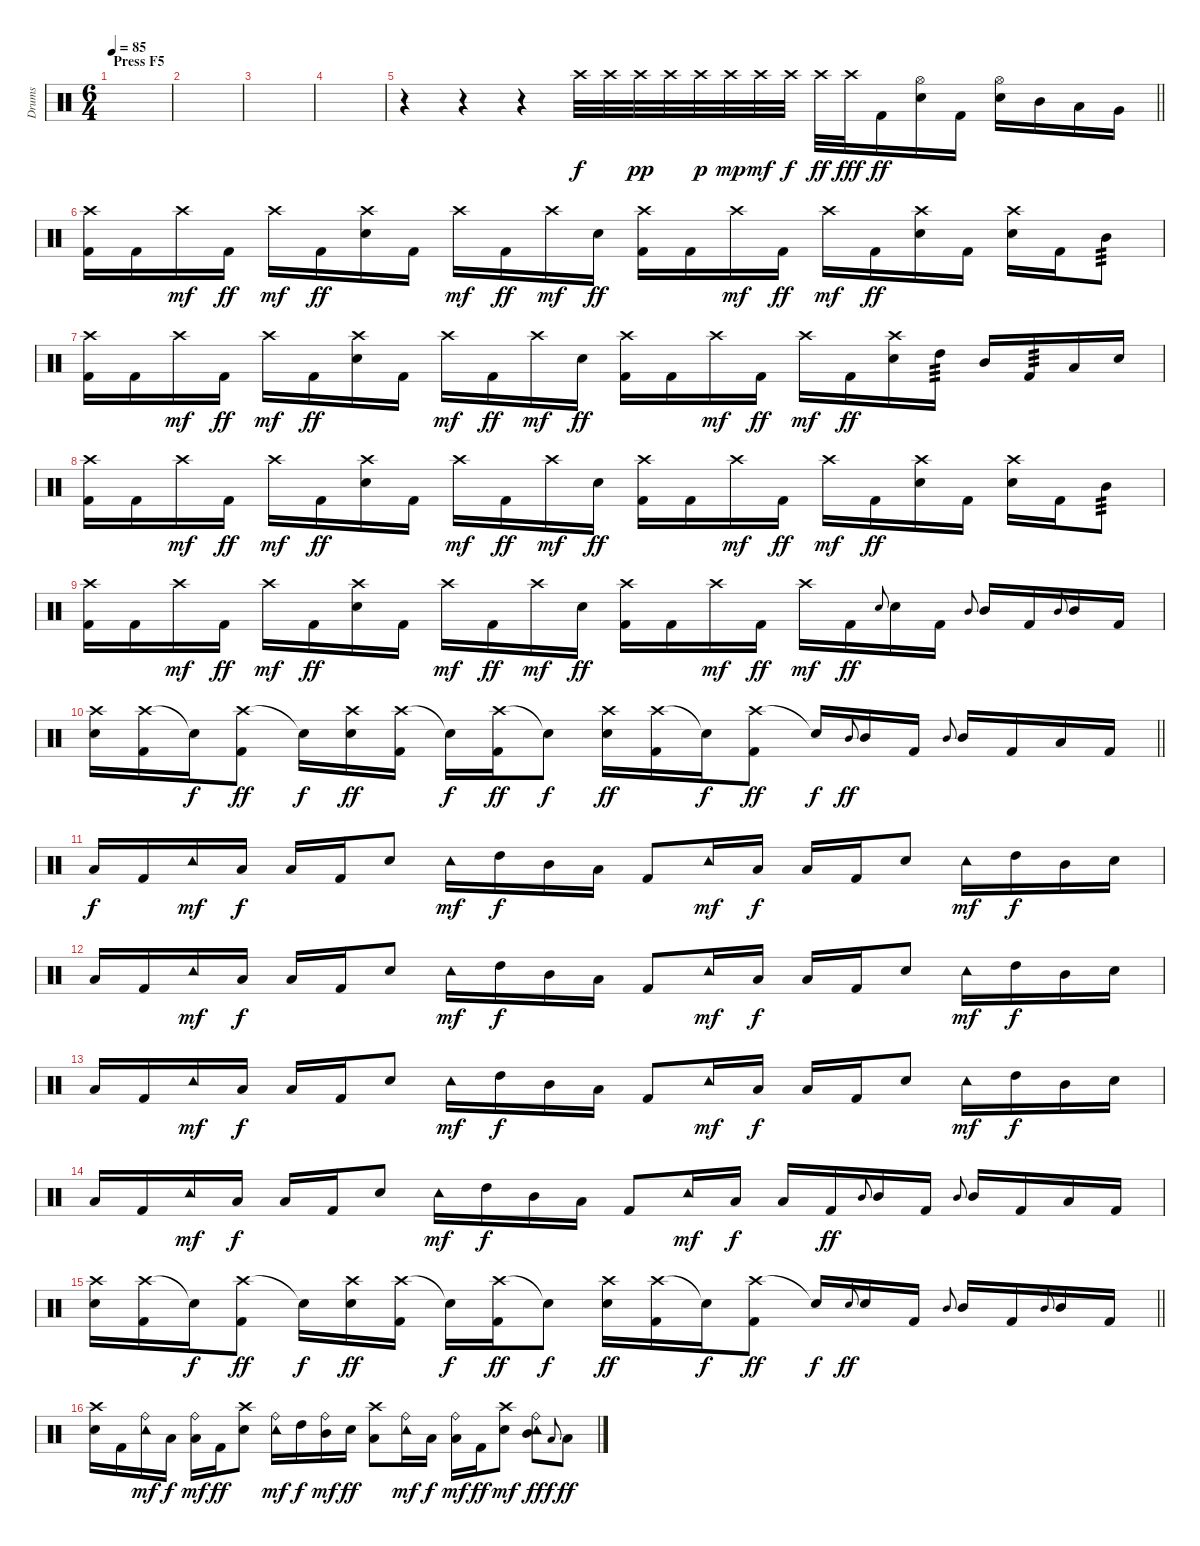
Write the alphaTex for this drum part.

\track ("Drums" "Drums") {instrument percussion}
\staff {score}
\articulation defaults
\ts (6 4)
\section ("" "Press F5")
\tempo 85
\clef neutral
\ks c
|
|
|
|
\barLineRight lightlight
r.4 r.4 r.4 "Crash high (hit)".32 "Crash high (hit)".32 "Crash high (hit)".32{dy pp} "Crash high (hit)".32 "Crash high (hit)".32{dy p} "Crash high (hit)".32{dy mp} "Crash high (hit)".32{dy mf} "Crash high (hit)".32{dy f} "Crash high (hit)".32{dy ff} "Crash high (hit)".32{dy fff} "Kick (hit) 2".16{dy ff} ("Hi-Hat (open)" "Snare (hit) 2").16 "Kick (hit) 2".16 ("Hi-Hat (open)" "Snare (hit) 2").16 "Mid Tom (hit)".16 "Low Tom (hit)".16 "Very Low Tom (hit)".16 |
\section ("" "")
("Crash high (hit)" "Kick (hit) 2").16 "Kick (hit) 2".16 "Crash high (hit)".16{dy mf} "Kick (hit) 2".16{dy ff} "Crash high (hit)".16{dy mf} "Kick (hit) 2".16{dy ff} ("Crash high (hit)" "Snare (hit) 2").16 "Kick (hit) 2".16 "Crash high (hit)".16{dy mf} "Kick (hit) 2".16{dy ff} "Crash high (hit)".16{dy mf} "Snare (hit) 2".16{dy ff} ("Crash high (hit)" "Kick (hit) 2").16 "Kick (hit) 2".16 "Crash high (hit)".16{dy mf} "Kick (hit) 2".16{dy ff} "Crash high (hit)".16{dy mf} "Kick (hit) 2".16{dy ff} ("Crash high (hit)" "Snare (hit) 2").16 "Kick (hit) 2".16 ("Crash high (hit)" "Snare (hit) 2").16 "Kick (hit) 2".16 "Mid Tom (hit)".8{tp 3} |
("Crash high (hit)" "Kick (hit) 2").16 "Kick (hit) 2".16 "Crash high (hit)".16{dy mf} "Kick (hit) 2".16{dy ff} "Crash high (hit)".16{dy mf} "Kick (hit) 2".16{dy ff} ("Crash high (hit)" "Snare (hit) 2").16 "Kick (hit) 2".16 "Crash high (hit)".16{dy mf} "Kick (hit) 2".16{dy ff} "Crash high (hit)".16{dy mf} "Snare (hit) 2".16{dy ff} ("Crash high (hit)" "Kick (hit) 2").16 "Kick (hit) 2".16 "Crash high (hit)".16{dy mf} "Kick (hit) 2".16{dy ff} "Crash high (hit)".16{dy mf} "Kick (hit) 2".16{dy ff} ("Crash high (hit)" "Snare (hit) 2").16 "High Tom (hit)".16{tp 3} "Mid Tom (hit)".16 "Kick (hit) 2".16{tp 3} "Low Tom (hit)".16 "Snare (hit) 2".16 |
("Crash high (hit)" "Kick (hit) 2").16 "Kick (hit) 2".16 "Crash high (hit)".16{dy mf} "Kick (hit) 2".16{dy ff} "Crash high (hit)".16{dy mf} "Kick (hit) 2".16{dy ff} ("Crash high (hit)" "Snare (hit) 2").16 "Kick (hit) 2".16 "Crash high (hit)".16{dy mf} "Kick (hit) 2".16{dy ff} "Crash high (hit)".16{dy mf} "Snare (hit) 2".16{dy ff} ("Crash high (hit)" "Kick (hit) 2").16 "Kick (hit) 2".16 "Crash high (hit)".16{dy mf} "Kick (hit) 2".16{dy ff} "Crash high (hit)".16{dy mf} "Kick (hit) 2".16{dy ff} ("Crash high (hit)" "Snare (hit) 2").16 "Kick (hit) 2".16 ("Crash high (hit)" "Snare (hit) 2").16 "Kick (hit) 2".16 "Mid Tom (hit)".8{tp 3} |
("Crash high (hit)" "Kick (hit) 2").16 "Kick (hit) 2".16 "Crash high (hit)".16{dy mf} "Kick (hit) 2".16{dy ff} "Crash high (hit)".16{dy mf} "Kick (hit) 2".16{dy ff} ("Crash high (hit)" "Snare (hit) 2").16 "Kick (hit) 2".16 "Crash high (hit)".16{dy mf} "Kick (hit) 2".16{dy ff} "Crash high (hit)".16{dy mf} "Snare (hit) 2".16{dy ff} ("Crash high (hit)" "Kick (hit) 2").16 "Kick (hit) 2".16 "Crash high (hit)".16{dy mf} "Kick (hit) 2".16{dy ff} "Crash high (hit)".16{dy mf} "Kick (hit) 2".16{dy ff} "Snare (hit) 2".8{gr onbeat} "Snare (hit) 2".16 "Kick (hit) 2".16 "Mid Tom (hit)".8{gr onbeat} "Mid Tom (hit)".16 "Kick (hit) 2".16 "Mid Tom (hit)".8{gr onbeat} "Mid Tom (hit)".16 "Kick (hit) 2".16 |
\barLineRight lightlight
("Crash high (hit)" "Snare (hit) 2").16 ("Crash high (hit)" "Kick (hit) 2").16 "Snare (hit)"{t}.16{dy f} ("Crash high (hit)" "Kick (hit) 2").8{dy ff} "Snare (hit)"{t}.16{dy f} ("Crash high (hit)" "Snare (hit) 2").16{dy ff} ("Crash high (hit)" "Kick (hit) 2").16 "Snare (hit)"{t}.16{dy f} ("Crash high (hit)" "Kick (hit) 2").16{dy ff} "Snare (hit)"{t}.8{dy f} ("Crash high (hit)" "Snare (hit) 2").16{dy ff} ("Crash high (hit)" "Kick (hit) 2").16 "Snare (hit)"{t}.16{dy f} ("Crash high (hit)" "Kick (hit) 2").8{dy ff} "Snare (hit)"{t}.16{dy f} "Mid Tom (hit)".8{gr onbeat dy ff} "Mid Tom (hit)".16 "Kick (hit) 2".16 "Mid Tom (hit)".8{gr onbeat} "Mid Tom (hit)".16 "Kick (hit) 2".16 "Low Tom (hit)".16 "Kick (hit) 2".16 |
\section ("" "")
"Low Tom (hit)".16{dy f} "Kick (hit) 2".16 "Tambourine (hit)".16{dy mf} "Low Floor Tom (hit)".16{dy f} "Low Floor Tom (hit)".16 "Kick (hit) 2".16 "Snare (hit) 2".8 "Tambourine (hit)".16{dy mf} "High Tom (hit)".16{dy f} "Mid Tom (hit)".16 "Low Tom (hit)".16 "Kick (hit) 2".8 "Tambourine (hit)".16{dy mf} "Low Floor Tom (hit)".16{dy f} "Low Floor Tom (hit)".16 "Kick (hit) 2".16 "Snare (hit) 2".8 "Tambourine (hit)".16{dy mf} "High Tom (hit)".16{dy f} "Mid Tom (hit)".16 "Snare (hit) 2".16 |
"Low Tom (hit)".16 "Kick (hit) 2".16 "Tambourine (hit)".16{dy mf} "Low Floor Tom (hit)".16{dy f} "Low Floor Tom (hit)".16 "Kick (hit) 2".16 "Snare (hit) 2".8 "Tambourine (hit)".16{dy mf} "High Tom (hit)".16{dy f} "Mid Tom (hit)".16 "Low Tom (hit)".16 "Kick (hit) 2".8 "Tambourine (hit)".16{dy mf} "Low Floor Tom (hit)".16{dy f} "Low Floor Tom (hit)".16 "Kick (hit) 2".16 "Snare (hit) 2".8 "Tambourine (hit)".16{dy mf} "High Tom (hit)".16{dy f} "Mid Tom (hit)".16 "Snare (hit) 2".16 |
"Low Tom (hit)".16 "Kick (hit) 2".16 "Tambourine (hit)".16{dy mf} "Low Floor Tom (hit)".16{dy f} "Low Floor Tom (hit)".16 "Kick (hit) 2".16 "Snare (hit) 2".8 "Tambourine (hit)".16{dy mf} "High Tom (hit)".16{dy f} "Mid Tom (hit)".16 "Low Tom (hit)".16 "Kick (hit) 2".8 "Tambourine (hit)".16{dy mf} "Low Floor Tom (hit)".16{dy f} "Low Floor Tom (hit)".16 "Kick (hit) 2".16 "Snare (hit) 2".8 "Tambourine (hit)".16{dy mf} "High Tom (hit)".16{dy f} "Mid Tom (hit)".16 "Snare (hit) 2".16 |
"Low Tom (hit)".16 "Kick (hit) 2".16 "Tambourine (hit)".16{dy mf} "Low Floor Tom (hit)".16{dy f} "Low Floor Tom (hit)".16 "Kick (hit) 2".16 "Snare (hit) 2".8 "Tambourine (hit)".16{dy mf} "High Tom (hit)".16{dy f} "Mid Tom (hit)".16 "Low Tom (hit)".16 "Kick (hit) 2".8 "Tambourine (hit)".16{dy mf} "Low Floor Tom (hit)".16{dy f} "Low Floor Tom (hit)".16 "Kick (hit) 2".16{dy ff} "Mid Tom (hit)".8{gr onbeat} "Mid Tom (hit)".16 "Kick (hit) 2".16 "Mid Tom (hit)".8{gr onbeat} "Mid Tom (hit)".16 "Kick (hit) 2".16 "Low Tom (hit)".16 "Kick (hit) 2".16 |
\barLineRight lightlight
("Crash high (hit)" "Snare (hit) 2").16 ("Crash high (hit)" "Kick (hit) 2").16 "Snare (hit)"{t}.16{dy f} ("Crash high (hit)" "Kick (hit) 2").8{dy ff} "Snare (hit)"{t}.16{dy f} ("Crash high (hit)" "Snare (hit) 2").16{dy ff} ("Crash high (hit)" "Kick (hit) 2").16 "Snare (hit)"{t}.16{dy f} ("Crash high (hit)" "Kick (hit) 2").16{dy ff} "Snare (hit)"{t}.8{dy f} ("Crash high (hit)" "Snare (hit) 2").16{dy ff} ("Crash high (hit)" "Kick (hit) 2").16 "Snare (hit)"{t}.16{dy f} ("Crash high (hit)" "Kick (hit) 2").8{dy ff} "Snare (hit)"{t}.16{dy f} "Snare (hit) 2".8{gr onbeat dy ff} "Snare (hit) 2".16 "Kick (hit) 2".16 "Mid Tom (hit)".8{gr onbeat} "Mid Tom (hit)".16 "Kick (hit) 2".16 "Mid Tom (hit)".8{gr onbeat} "Mid Tom (hit)".16 "Kick (hit) 2".16 |
\section ("" "")
("Crash high (hit)" "Snare (hit) 2").16 "Kick (hit) 2".16 ("Tambourine (hit)" "Ride (bell)").16{dy mf} "Low Floor Tom (hit)".16{dy f} ("Ride (bell)" "Low Floor Tom (hit)").16{dy mf} "Kick (hit) 2".16{dy ff} ("Crash high (hit)" "Snare (hit) 2").8 ("Tambourine (hit)" "Ride (bell)").16{dy mf} "High Tom (hit)".16{dy f} ("Ride (bell)" "Mid Tom (hit)").16{dy mf} "Snare (hit) 2".16{dy ff} ("Crash high (hit)" "Low Tom (hit)").8 ("Tambourine (hit)" "Ride (bell)").16{dy mf} "Low Floor Tom (hit)".16{dy f} ("Ride (bell)" "Low Floor Tom (hit)").16{dy mf} "Kick (hit) 2".16{dy ff} ("Crash high (hit)" "Snare (hit) 2").8{dy mf} ("Tambourine (hit)" "Ride (bell)" "Mid Tom (hit)").8{dy ff} "Low Tom (hit)".8{gr onbeat dy f} "Low Tom (hit)".8{dy ff}
